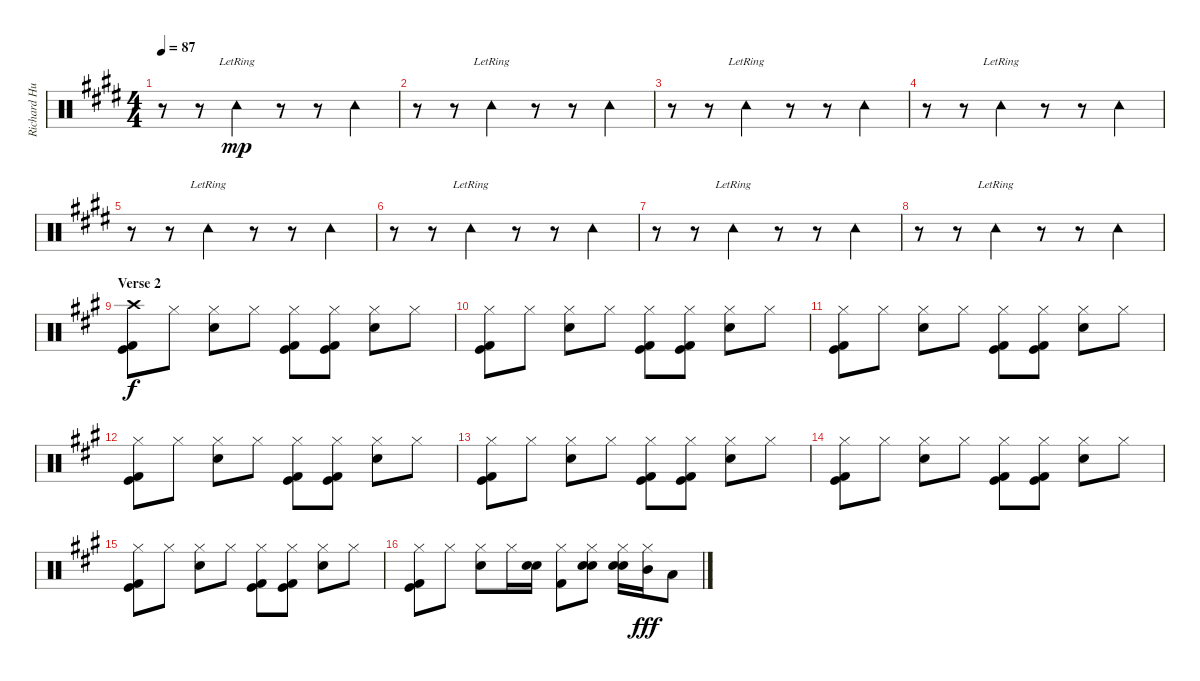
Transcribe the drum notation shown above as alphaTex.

\track ("Richard Hughes (Drums)" "Richard Hu") {instrument percussion}
\staff {score}
\articulation defaults
\ts (4 4)
\tempo 87
\clef neutral
\ks e
r.8{dy f} r.8 "Tambourine (hit)"{lr}.4{dy mp} r.8 r.8 "Tambourine (hit)".4 |
r.8 r.8 "Tambourine (hit)"{lr}.4 r.8 r.8 "Tambourine (hit)".4 |
r.8 r.8 "Tambourine (hit)"{lr}.4 r.8 r.8 "Tambourine (hit)".4 |
r.8 r.8 "Tambourine (hit)"{lr}.4 r.8 r.8 "Tambourine (hit)".4 |
r.8 r.8 "Tambourine (hit)"{lr}.4 r.8 r.8 "Tambourine (hit)".4 |
r.8 r.8 "Tambourine (hit)"{lr}.4 r.8 r.8 "Tambourine (hit)".4 |
r.8 r.8 "Tambourine (hit)"{lr}.4 r.8 r.8 "Tambourine (hit)".4 |
r.8 r.8 "Tambourine (hit)"{lr}.4 r.8 r.8 "Tambourine (hit)".4 |
\section ("" "Verse 2 ")
\ks a
("Crash high (hit)" "Kick (hit) 2" "Kick (hit)").8{dy f} "Hi-Hat (closed)".8 ("Hi-Hat (closed)" "Snare (hit) 2").8 "Hi-Hat (closed)".8 ("Hi-Hat (closed)" "Kick (hit) 2" "Kick (hit)").8 ("Hi-Hat (closed)" "Kick (hit) 2" "Kick (hit)").8 ("Hi-Hat (closed)" "Snare (hit) 2").8 "Hi-Hat (closed)".8 |
("Hi-Hat (closed)" "Kick (hit) 2" "Kick (hit)").8 "Hi-Hat (closed)".8 ("Hi-Hat (closed)" "Snare (hit) 2").8 "Hi-Hat (closed)".8 ("Hi-Hat (closed)" "Kick (hit) 2" "Kick (hit)").8 ("Hi-Hat (closed)" "Kick (hit) 2" "Kick (hit)").8 ("Hi-Hat (closed)" "Snare (hit) 2").8 "Hi-Hat (closed)".8 |
("Hi-Hat (closed)" "Kick (hit) 2" "Kick (hit)").8 "Hi-Hat (closed)".8 ("Hi-Hat (closed)" "Snare (hit) 2").8 "Hi-Hat (closed)".8 ("Hi-Hat (closed)" "Kick (hit) 2" "Kick (hit)").8 ("Hi-Hat (closed)" "Kick (hit) 2" "Kick (hit)").8 ("Hi-Hat (closed)" "Snare (hit) 2").8 "Hi-Hat (closed)".8 |
("Hi-Hat (closed)" "Kick (hit) 2" "Kick (hit)").8 "Hi-Hat (closed)".8 ("Hi-Hat (closed)" "Snare (hit) 2").8 "Hi-Hat (closed)".8 ("Hi-Hat (closed)" "Kick (hit) 2" "Kick (hit)").8 ("Hi-Hat (closed)" "Kick (hit) 2" "Kick (hit)").8 ("Hi-Hat (closed)" "Snare (hit) 2").8 "Hi-Hat (closed)".8 |
("Hi-Hat (closed)" "Kick (hit) 2" "Kick (hit)").8 "Hi-Hat (closed)".8 ("Hi-Hat (closed)" "Snare (hit) 2").8 "Hi-Hat (closed)".8 ("Hi-Hat (closed)" "Kick (hit) 2" "Kick (hit)").8 ("Hi-Hat (closed)" "Kick (hit) 2" "Kick (hit)").8 ("Hi-Hat (closed)" "Snare (hit) 2").8 "Hi-Hat (closed)".8 |
("Hi-Hat (closed)" "Kick (hit) 2" "Kick (hit)").8 "Hi-Hat (closed)".8 ("Hi-Hat (closed)" "Snare (hit) 2").8 "Hi-Hat (closed)".8 ("Hi-Hat (closed)" "Kick (hit) 2" "Kick (hit)").8 ("Hi-Hat (closed)" "Kick (hit) 2" "Kick (hit)").8 ("Hi-Hat (closed)" "Snare (hit) 2").8 "Hi-Hat (closed)".8 |
("Hi-Hat (closed)" "Kick (hit) 2" "Kick (hit)").8 "Hi-Hat (closed)".8 ("Hi-Hat (closed)" "Snare (hit) 2").8 "Hi-Hat (closed)".8 ("Hi-Hat (closed)" "Kick (hit) 2" "Kick (hit)").8 ("Hi-Hat (closed)" "Kick (hit) 2" "Kick (hit)").8 ("Hi-Hat (closed)" "Snare (hit) 2").8 "Hi-Hat (closed)".8 |
("Hi-Hat (closed)" "Kick (hit) 2" "Kick (hit)").8 "Hi-Hat (closed)".8 ("Hi-Hat (closed)" "Snare (hit) 2").8 "Hi-Hat (closed)".16 ("Snare (hit) 2" "Electric Snare (hit)").16 ("Hi-Hat (closed)" "Kick (hit) 2").8 ("Hi-Hat (closed)" "Snare (hit) 2" "Electric Snare (hit)").8 ("Hi-Hat (closed)" "Snare (hit) 2" "Electric Snare (hit)").16 ("Hi-Hat (closed)" "Mid Tom (hit)").16{dy fff} "Low Tom (hit)".8
